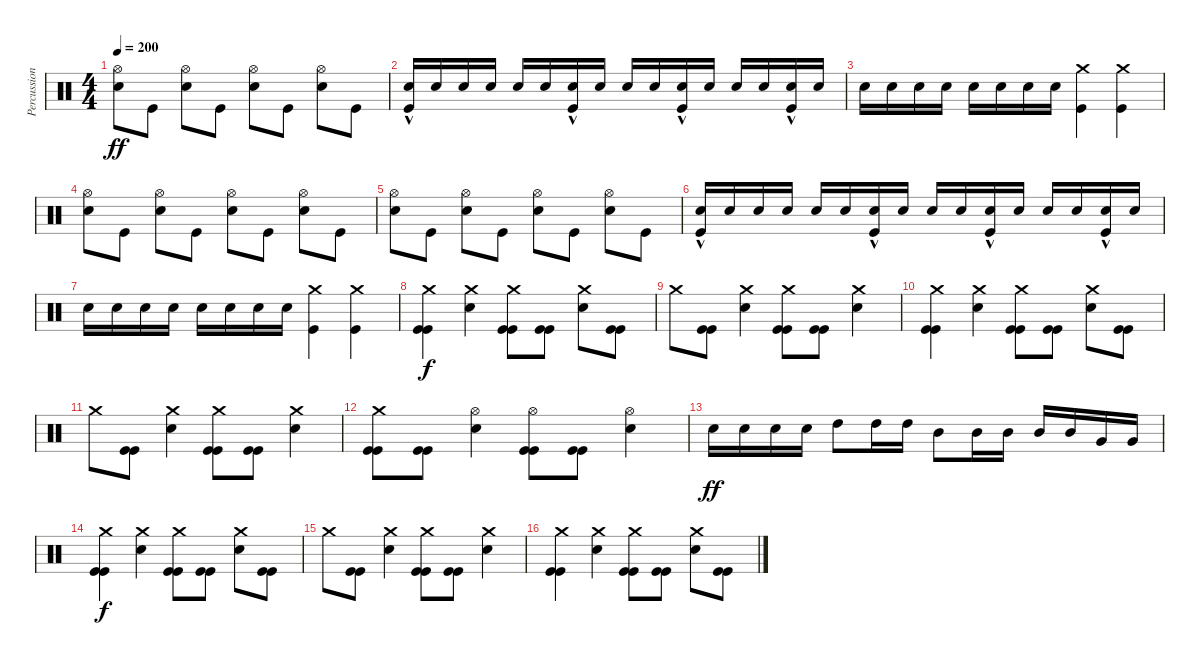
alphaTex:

\track ("Percussion" "Percussion") {instrument percussion}
\staff {score}
\articulation defaults
\ts (4 4)
\tempo 200
\clef neutral
\ks c
("Hi-Hat (open)" "Snare (hit) 2").8{dy ff} "Kick (hit)".8 ("Hi-Hat (open)" "Snare (hit) 2").8 "Kick (hit)".8 ("Hi-Hat (open)" "Snare (hit) 2").8 "Kick (hit)".8 ("Hi-Hat (open)" "Snare (hit) 2").8 "Kick (hit)".8 |
("Snare (hit) 2"{hac} "Kick (hit)").16 "Snare (hit) 2".16 "Snare (hit) 2".16 "Snare (hit) 2".16 "Snare (hit) 2".16 "Snare (hit) 2".16 ("Snare (hit) 2"{hac} "Kick (hit)").16 "Snare (hit) 2".16 "Snare (hit) 2".16 "Snare (hit) 2".16 ("Snare (hit) 2"{hac} "Kick (hit)").16 "Snare (hit) 2".16 "Snare (hit) 2".16 "Snare (hit) 2".16 ("Snare (hit) 2"{hac} "Kick (hit)").16 "Snare (hit) 2".16 |
"Snare (hit) 2".16 "Snare (hit) 2".16 "Snare (hit) 2".16 "Snare (hit) 2".16 "Snare (hit) 2".16 "Snare (hit) 2".16 "Snare (hit) 2".16 "Snare (hit) 2".16 ("Crash medium (hit)" "Kick (hit)").4 ("Crash medium (hit)" "Kick (hit)").4 |
("Hi-Hat (open)" "Snare (hit) 2").8 "Kick (hit)".8 ("Hi-Hat (open)" "Snare (hit) 2").8 "Kick (hit)".8 ("Hi-Hat (open)" "Snare (hit) 2").8 "Kick (hit)".8 ("Hi-Hat (open)" "Snare (hit) 2").8 "Kick (hit)".8 |
("Hi-Hat (open)" "Snare (hit) 2").8 "Kick (hit)".8 ("Hi-Hat (open)" "Snare (hit) 2").8 "Kick (hit)".8 ("Hi-Hat (open)" "Snare (hit) 2").8 "Kick (hit)".8 ("Hi-Hat (open)" "Snare (hit) 2").8 "Kick (hit)".8 |
("Snare (hit) 2"{hac} "Kick (hit)").16 "Snare (hit) 2".16 "Snare (hit) 2".16 "Snare (hit) 2".16 "Snare (hit) 2".16 "Snare (hit) 2".16 ("Snare (hit) 2"{hac} "Kick (hit)").16 "Snare (hit) 2".16 "Snare (hit) 2".16 "Snare (hit) 2".16 ("Snare (hit) 2"{hac} "Kick (hit)").16 "Snare (hit) 2".16 "Snare (hit) 2".16 "Snare (hit) 2".16 ("Snare (hit) 2"{hac} "Kick (hit)").16 "Snare (hit) 2".16 |
"Snare (hit) 2".16 "Snare (hit) 2".16 "Snare (hit) 2".16 "Snare (hit) 2".16 "Snare (hit) 2".16 "Snare (hit) 2".16 "Snare (hit) 2".16 "Snare (hit) 2".16 ("Crash medium (hit)" "Kick (hit)").4 ("Crash medium (hit)" "Kick (hit)").4 |
("Crash medium (hit)" "Kick (hit)" "Kick (hit)").4{dy f} ("Crash medium (hit)" "Snare (hit) 2").4 ("Crash medium (hit)" "Kick (hit)" "Kick (hit)").8 ("Kick (hit)" "Kick (hit)").8 ("Crash medium (hit)" "Snare (hit) 2").8 ("Kick (hit)" "Kick (hit)").8 |
"Crash medium (hit)".8 ("Kick (hit)" "Kick (hit)").8 ("Crash medium (hit)" "Snare (hit) 2").4 ("Crash medium (hit)" "Kick (hit)" "Kick (hit)").8 ("Kick (hit)" "Kick (hit)").8 ("Crash medium (hit)" "Snare (hit) 2").4 |
("Crash medium (hit)" "Kick (hit)" "Kick (hit)").4 ("Crash medium (hit)" "Snare (hit) 2").4 ("Crash medium (hit)" "Kick (hit)" "Kick (hit)").8 ("Kick (hit)" "Kick (hit)").8 ("Crash medium (hit)" "Snare (hit) 2").8 ("Kick (hit)" "Kick (hit)").8 |
"Crash medium (hit)".8 ("Kick (hit)" "Kick (hit)").8 ("Crash medium (hit)" "Snare (hit) 2").4 ("Crash medium (hit)" "Kick (hit)" "Kick (hit)").8 ("Kick (hit)" "Kick (hit)").8 ("Crash medium (hit)" "Snare (hit) 2").4 |
("Crash medium (hit)" "Kick (hit)" "Kick (hit)").8 ("Kick (hit)" "Kick (hit)").8 ("Hi-Hat (open)" "Snare (hit) 2").4 ("Hi-Hat (open)" "Kick (hit)" "Kick (hit)").8 ("Kick (hit)" "Kick (hit)").8 ("Hi-Hat (open)" "Snare (hit) 2").4 |
"Snare (hit) 2".16{dy ff} "Snare (hit) 2".16 "Snare (hit) 2".16 "Snare (hit) 2".16 "High Tom (hit)".8 "High Tom (hit)".16 "High Tom (hit)".16 "Mid Tom (hit)".8 "Mid Tom (hit)".16 "Mid Tom (hit)".16 "Mid Tom (hit)".16 "Mid Tom (hit)".16 "Very Low Tom (hit)".16 "Very Low Tom (hit)".16 |
("Crash medium (hit)" "Kick (hit)" "Kick (hit)").4{dy f} ("Crash medium (hit)" "Snare (hit) 2").4 ("Crash medium (hit)" "Kick (hit)" "Kick (hit)").8 ("Kick (hit)" "Kick (hit)").8 ("Crash medium (hit)" "Snare (hit) 2").8 ("Kick (hit)" "Kick (hit)").8 |
"Crash medium (hit)".8 ("Kick (hit)" "Kick (hit)").8 ("Crash medium (hit)" "Snare (hit) 2").4 ("Crash medium (hit)" "Kick (hit)" "Kick (hit)").8 ("Kick (hit)" "Kick (hit)").8 ("Crash medium (hit)" "Snare (hit) 2").4 |
("Crash medium (hit)" "Kick (hit)" "Kick (hit)").4 ("Crash medium (hit)" "Snare (hit) 2").4 ("Crash medium (hit)" "Kick (hit)" "Kick (hit)").8 ("Kick (hit)" "Kick (hit)").8 ("Crash medium (hit)" "Snare (hit) 2").8 ("Kick (hit)" "Kick (hit)").8
